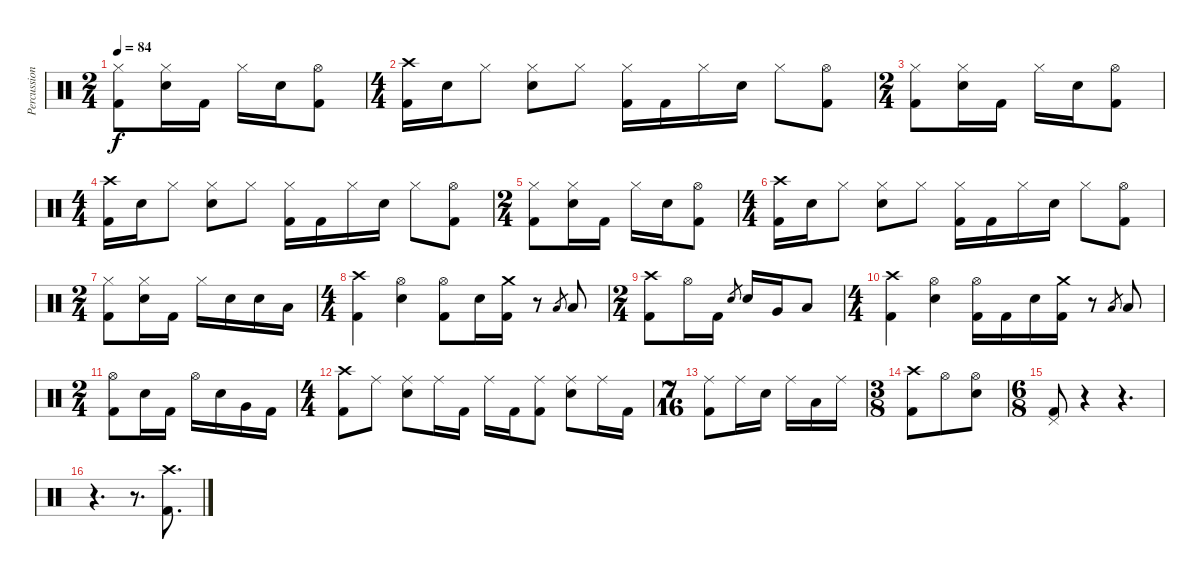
\track ("Percussion" "Percussion") {instrument percussion}
\staff {score}
\articulation defaults
\ts (2 4)
\tempo 84
\clef neutral
\ks c
("Hi-Hat (closed)" "Kick (hit) 2").8{dy f} ("Hi-Hat (closed)" "Electric Snare (hit)").16 "Kick (hit) 2".16 "Hi-Hat (closed)".16 "Electric Snare (hit)".16 ("Hi-Hat (open)" "Kick (hit) 2").8 |
\ts (4 4)
("Crash high (hit)" "Kick (hit) 2").16 "Electric Snare (hit)".16 "Hi-Hat (closed)".8 ("Hi-Hat (closed)" "Electric Snare (hit)").8 "Hi-Hat (closed)".8 ("Hi-Hat (closed)" "Kick (hit) 2").16 "Kick (hit) 2".16 "Hi-Hat (closed)".16 "Electric Snare (hit)".16 "Hi-Hat (closed)".8 ("Hi-Hat (open)" "Kick (hit) 2").8 |
\ts (2 4)
("Hi-Hat (closed)" "Kick (hit) 2").8 ("Hi-Hat (closed)" "Electric Snare (hit)").16 "Kick (hit) 2".16 "Hi-Hat (closed)".16 "Electric Snare (hit)".16 ("Hi-Hat (open)" "Kick (hit) 2").8 |
\ts (4 4)
("Crash high (hit)" "Kick (hit) 2").16 "Electric Snare (hit)".16 "Hi-Hat (closed)".8 ("Hi-Hat (closed)" "Electric Snare (hit)").8 "Hi-Hat (closed)".8 ("Hi-Hat (closed)" "Kick (hit) 2").16 "Kick (hit) 2".16 "Hi-Hat (closed)".16 "Electric Snare (hit)".16 "Hi-Hat (closed)".8 ("Hi-Hat (open)" "Kick (hit) 2").8 |
\ts (2 4)
("Hi-Hat (closed)" "Kick (hit) 2").8 ("Hi-Hat (closed)" "Electric Snare (hit)").16 "Kick (hit) 2".16 "Hi-Hat (closed)".16 "Electric Snare (hit)".16 ("Hi-Hat (open)" "Kick (hit) 2").8 |
\ts (4 4)
("Crash high (hit)" "Kick (hit) 2").16 "Electric Snare (hit)".16 "Hi-Hat (closed)".8 ("Hi-Hat (closed)" "Electric Snare (hit)").8 "Hi-Hat (closed)".8 ("Hi-Hat (closed)" "Kick (hit) 2").16 "Kick (hit) 2".16 "Hi-Hat (closed)".16 "Electric Snare (hit)".16 "Hi-Hat (closed)".8 ("Hi-Hat (open)" "Kick (hit) 2").8 |
\ts (2 4)
("Hi-Hat (closed)" "Kick (hit) 2").8 ("Hi-Hat (closed)" "Electric Snare (hit)").16 "Kick (hit) 2".16 "Hi-Hat (closed)".16 "Electric Snare (hit)".16 "Electric Snare (hit)".16 "Low Tom (hit)".16 |
\ts (4 4)
("Crash high (hit)" "Kick (hit) 2").4 ("Hi-Hat (open)" "Electric Snare (hit)").4 ("Hi-Hat (open)" "Kick (hit) 2").8 "Electric Snare (hit)".16 ("Crash medium (hit)" "Kick (hit) 2").16 r.8 "Low Floor Tom (hit)".8{gr} "Low Floor Tom (hit)".8 |
\ts (2 4)
("Crash high (hit)" "Kick (hit) 2").8 "Hi-Hat (open)".16 "Kick (hit) 2".16 "Electric Snare (hit)".8{gr} "Electric Snare (hit)".16 "Very Low Tom (hit)".16 "Low Floor Tom (hit)".8 |
\ts (4 4)
("Crash high (hit)" "Kick (hit) 2").4 ("Hi-Hat (open)" "Electric Snare (hit)").4 ("Hi-Hat (open)" "Kick (hit) 2").16 "Kick (hit) 2".16 "Electric Snare (hit)".16 ("Crash medium (hit)" "Kick (hit) 2").16 r.8 "Low Floor Tom (hit)".8{gr} "Low Floor Tom (hit)".8 |
\ts (2 4)
("Hi-Hat (open)" "Kick (hit) 2").8 "Electric Snare (hit)".16 "Kick (hit) 2".16 "Hi-Hat (open)".16 "Electric Snare (hit)".16 "Very Low Tom (hit)".16 "Kick (hit) 2".16 |
\ts (4 4)
("Crash high (hit)" "Kick (hit) 2").8 "Ride (middle)".8 ("Ride (middle)" "Electric Snare (hit)").8 "Ride (middle)".16 "Kick (hit) 2".16 "Ride (middle)".16 "Kick (hit) 2".16 ("Ride (middle)" "Kick (hit) 2").8 ("Ride (middle)" "Electric Snare (hit)").8 "Ride (middle)".16 "Kick (hit) 2".16 |
\ts (7 16)
("Ride (middle)" "Kick (hit) 2").8 "Ride (middle)".16 "Electric Snare (hit)".16 "Ride (middle)".16 "Low Tom (hit)".16 "Ride (middle)".16 |
\ts (3 8)
("Crash high (hit)" "Kick (hit) 2").8 "Hi-Hat (open)".8 ("Hi-Hat (open)" "Electric Snare (hit)").8 |
\ts (6 8)
("Pedal Hi-Hat (hit)" "Kick (hit) 2").8 r.4 r.4{d} |
r.4{d} r.8{d} ("Crash high (hit)" "Kick (hit) 2").8{d}
